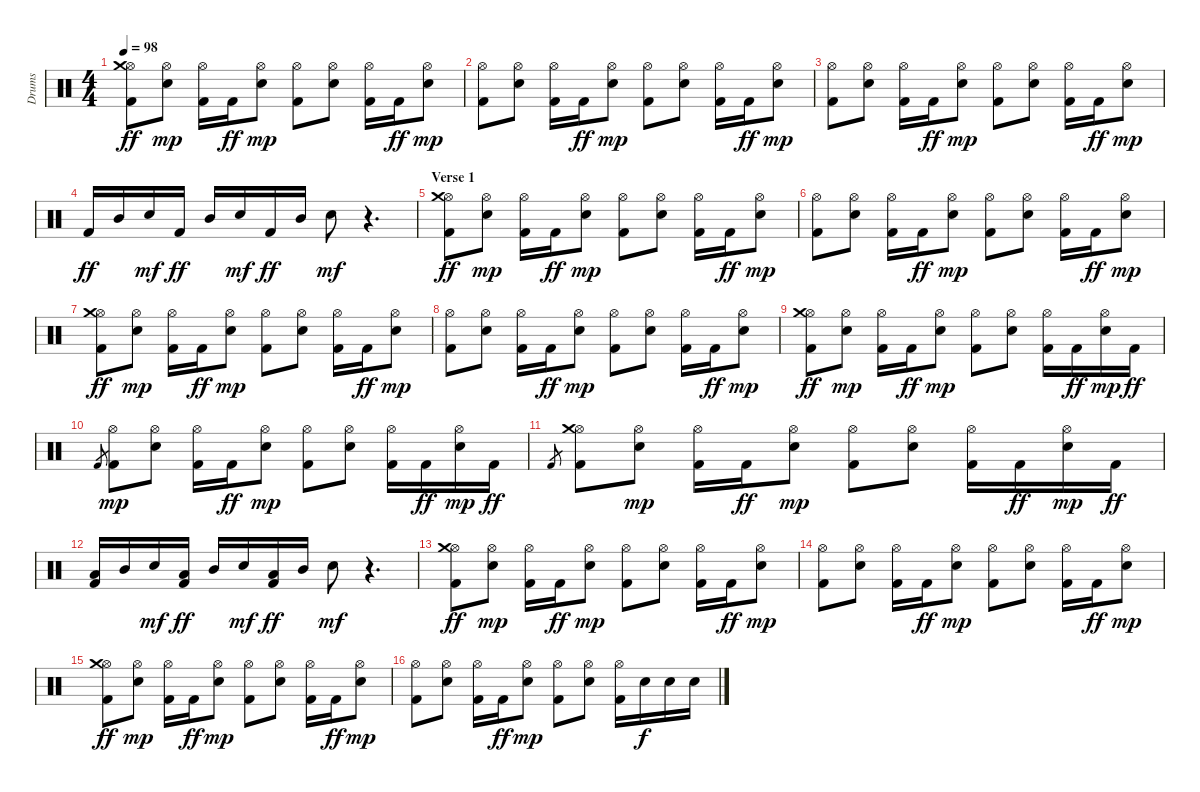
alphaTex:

\track ("Drums" "Drums") {instrument percussion}
\staff {score}
\articulation defaults
\ts (4 4)
\tempo 98
\clef neutral
\ks c
("Kick (hit) 2" "Hi-Hat (open)" "Crash medium (hit)").8{dy ff} ("Hi-Hat (open)" "Snare (hit) 2").8{dy mp} ("Kick (hit) 2" "Hi-Hat (open)").16 "Kick (hit) 2".16{dy ff} ("Hi-Hat (open)" "Snare (hit) 2").8{dy mp} ("Kick (hit) 2" "Hi-Hat (open)").8 ("Hi-Hat (open)" "Snare (hit) 2").8 ("Kick (hit) 2" "Hi-Hat (open)").16 "Kick (hit) 2".16{dy ff} ("Hi-Hat (open)" "Snare (hit) 2").8{dy mp} |
("Kick (hit) 2" "Hi-Hat (open)").8 ("Hi-Hat (open)" "Snare (hit) 2").8 ("Kick (hit) 2" "Hi-Hat (open)").16 "Kick (hit) 2".16{dy ff} ("Hi-Hat (open)" "Snare (hit) 2").8{dy mp} ("Kick (hit) 2" "Hi-Hat (open)").8 ("Hi-Hat (open)" "Snare (hit) 2").8 ("Kick (hit) 2" "Hi-Hat (open)").16 "Kick (hit) 2".16{dy ff} ("Hi-Hat (open)" "Snare (hit) 2").8{dy mp} |
("Kick (hit) 2" "Hi-Hat (open)").8 ("Hi-Hat (open)" "Snare (hit) 2").8 ("Kick (hit) 2" "Hi-Hat (open)").16 "Kick (hit) 2".16{dy ff} ("Hi-Hat (open)" "Snare (hit) 2").8{dy mp} ("Kick (hit) 2" "Hi-Hat (open)").8 ("Hi-Hat (open)" "Snare (hit) 2").8 ("Kick (hit) 2" "Hi-Hat (open)").16 "Kick (hit) 2".16{dy ff} ("Hi-Hat (open)" "Snare (hit) 2").8{dy mp} |
"Kick (hit) 2".16{dy ff} "Mid Tom (hit)".16 "Snare (hit) 2".16{dy mf} "Kick (hit) 2".16{dy ff} "Mid Tom (hit)".16 "Snare (hit) 2".16{dy mf} "Kick (hit) 2".16{dy ff} "Mid Tom (hit)".16 "Snare (hit) 2".8{dy mf} r.4{d} |
\section ("" "Verse 1")
("Kick (hit) 2" "Hi-Hat (open)" "Crash medium (hit)").8{dy ff} ("Hi-Hat (open)" "Snare (hit) 2").8{dy mp} ("Kick (hit) 2" "Hi-Hat (open)").16 "Kick (hit) 2".16{dy ff} ("Hi-Hat (open)" "Snare (hit) 2").8{dy mp} ("Kick (hit) 2" "Hi-Hat (open)").8 ("Hi-Hat (open)" "Snare (hit) 2").8 ("Kick (hit) 2" "Hi-Hat (open)").16 "Kick (hit) 2".16{dy ff} ("Hi-Hat (open)" "Snare (hit) 2").8{dy mp} |
("Kick (hit) 2" "Hi-Hat (open)").8 ("Hi-Hat (open)" "Snare (hit) 2").8 ("Kick (hit) 2" "Hi-Hat (open)").16 "Kick (hit) 2".16{dy ff} ("Hi-Hat (open)" "Snare (hit) 2").8{dy mp} ("Kick (hit) 2" "Hi-Hat (open)").8 ("Hi-Hat (open)" "Snare (hit) 2").8 ("Kick (hit) 2" "Hi-Hat (open)").16 "Kick (hit) 2".16{dy ff} ("Hi-Hat (open)" "Snare (hit) 2").8{dy mp} |
("Kick (hit) 2" "Hi-Hat (open)" "Crash medium (hit)").8{dy ff} ("Hi-Hat (open)" "Snare (hit) 2").8{dy mp} ("Kick (hit) 2" "Hi-Hat (open)").16 "Kick (hit) 2".16{dy ff} ("Hi-Hat (open)" "Snare (hit) 2").8{dy mp} ("Kick (hit) 2" "Hi-Hat (open)").8 ("Hi-Hat (open)" "Snare (hit) 2").8 ("Kick (hit) 2" "Hi-Hat (open)").16 "Kick (hit) 2".16{dy ff} ("Hi-Hat (open)" "Snare (hit) 2").8{dy mp} |
("Kick (hit) 2" "Hi-Hat (open)").8 ("Hi-Hat (open)" "Snare (hit) 2").8 ("Kick (hit) 2" "Hi-Hat (open)").16 "Kick (hit) 2".16{dy ff} ("Hi-Hat (open)" "Snare (hit) 2").8{dy mp} ("Kick (hit) 2" "Hi-Hat (open)").8 ("Hi-Hat (open)" "Snare (hit) 2").8 ("Kick (hit) 2" "Hi-Hat (open)").16 "Kick (hit) 2".16{dy ff} ("Hi-Hat (open)" "Snare (hit) 2").8{dy mp} |
("Kick (hit) 2" "Hi-Hat (open)" "Crash medium (hit)").8{dy ff} ("Hi-Hat (open)" "Snare (hit) 2").8{dy mp} ("Kick (hit) 2" "Hi-Hat (open)").16 "Kick (hit) 2".16{dy ff} ("Hi-Hat (open)" "Snare (hit) 2").8{dy mp} ("Kick (hit) 2" "Hi-Hat (open)").8 ("Hi-Hat (open)" "Snare (hit) 2").8 ("Kick (hit) 2" "Hi-Hat (open)").16 "Kick (hit) 2".16{dy ff} ("Hi-Hat (open)" "Snare (hit) 2").16{dy mp} "Kick (hit) 2".16{dy ff} |
"Kick (hit) 2".8{gr} ("Kick (hit) 2" "Hi-Hat (open)").8{dy mp} ("Hi-Hat (open)" "Snare (hit) 2").8 ("Kick (hit) 2" "Hi-Hat (open)").16 "Kick (hit) 2".16{dy ff} ("Hi-Hat (open)" "Snare (hit) 2").8{dy mp} ("Kick (hit) 2" "Hi-Hat (open)").8 ("Hi-Hat (open)" "Snare (hit) 2").8 ("Kick (hit) 2" "Hi-Hat (open)").16 "Kick (hit) 2".16{dy ff} ("Hi-Hat (open)" "Snare (hit) 2").16{dy mp} "Kick (hit) 2".16{dy ff} |
"Kick (hit) 2".8{gr} ("Kick (hit) 2" "Hi-Hat (open)" "Crash medium (hit)").8 ("Hi-Hat (open)" "Snare (hit) 2").8{dy mp} ("Kick (hit) 2" "Hi-Hat (open)").16 "Kick (hit) 2".16{dy ff} ("Hi-Hat (open)" "Snare (hit) 2").8{dy mp} ("Kick (hit) 2" "Hi-Hat (open)").8 ("Hi-Hat (open)" "Snare (hit) 2").8 ("Kick (hit) 2" "Hi-Hat (open)").16 "Kick (hit) 2".16{dy ff} ("Hi-Hat (open)" "Snare (hit) 2").16{dy mp} "Kick (hit) 2".16{dy ff} |
("Kick (hit) 2" "Low Floor Tom (hit)").16 "Mid Tom (hit)".16 "Snare (hit) 2".16{dy mf} ("Kick (hit) 2" "Low Floor Tom (hit)").16{dy ff} "Mid Tom (hit)".16 "Snare (hit) 2".16{dy mf} ("Kick (hit) 2" "Low Floor Tom (hit)").16{dy ff} "Mid Tom (hit)".16 "Snare (hit) 2".8{dy mf} r.4{d} |
("Kick (hit) 2" "Hi-Hat (open)" "Crash medium (hit)").8{dy ff} ("Hi-Hat (open)" "Snare (hit) 2").8{dy mp} ("Kick (hit) 2" "Hi-Hat (open)").16 "Kick (hit) 2".16{dy ff} ("Hi-Hat (open)" "Snare (hit) 2").8{dy mp} ("Kick (hit) 2" "Hi-Hat (open)").8 ("Hi-Hat (open)" "Snare (hit) 2").8 ("Kick (hit) 2" "Hi-Hat (open)").16 "Kick (hit) 2".16{dy ff} ("Hi-Hat (open)" "Snare (hit) 2").8{dy mp} |
("Kick (hit) 2" "Hi-Hat (open)").8 ("Hi-Hat (open)" "Snare (hit) 2").8 ("Kick (hit) 2" "Hi-Hat (open)").16 "Kick (hit) 2".16{dy ff} ("Hi-Hat (open)" "Snare (hit) 2").8{dy mp} ("Kick (hit) 2" "Hi-Hat (open)").8 ("Hi-Hat (open)" "Snare (hit) 2").8 ("Kick (hit) 2" "Hi-Hat (open)").16 "Kick (hit) 2".16{dy ff} ("Hi-Hat (open)" "Snare (hit) 2").8{dy mp} |
("Kick (hit) 2" "Hi-Hat (open)" "Crash medium (hit)").8{dy ff} ("Hi-Hat (open)" "Snare (hit) 2").8{dy mp} ("Kick (hit) 2" "Hi-Hat (open)").16 "Kick (hit) 2".16{dy ff} ("Hi-Hat (open)" "Snare (hit) 2").8{dy mp} ("Kick (hit) 2" "Hi-Hat (open)").8 ("Hi-Hat (open)" "Snare (hit) 2").8 ("Kick (hit) 2" "Hi-Hat (open)").16 "Kick (hit) 2".16{dy ff} ("Hi-Hat (open)" "Snare (hit) 2").8{dy mp} |
("Kick (hit) 2" "Hi-Hat (open)").8 ("Hi-Hat (open)" "Snare (hit) 2").8 ("Kick (hit) 2" "Hi-Hat (open)").16 "Kick (hit) 2".16{dy ff} ("Hi-Hat (open)" "Snare (hit) 2").8{dy mp} ("Kick (hit) 2" "Hi-Hat (open)").8 ("Hi-Hat (open)" "Snare (hit) 2").8 ("Kick (hit) 2" "Hi-Hat (open)").16 "Snare (hit) 2".16{dy f} "Snare (hit) 2".16 "Snare (hit) 2".16
